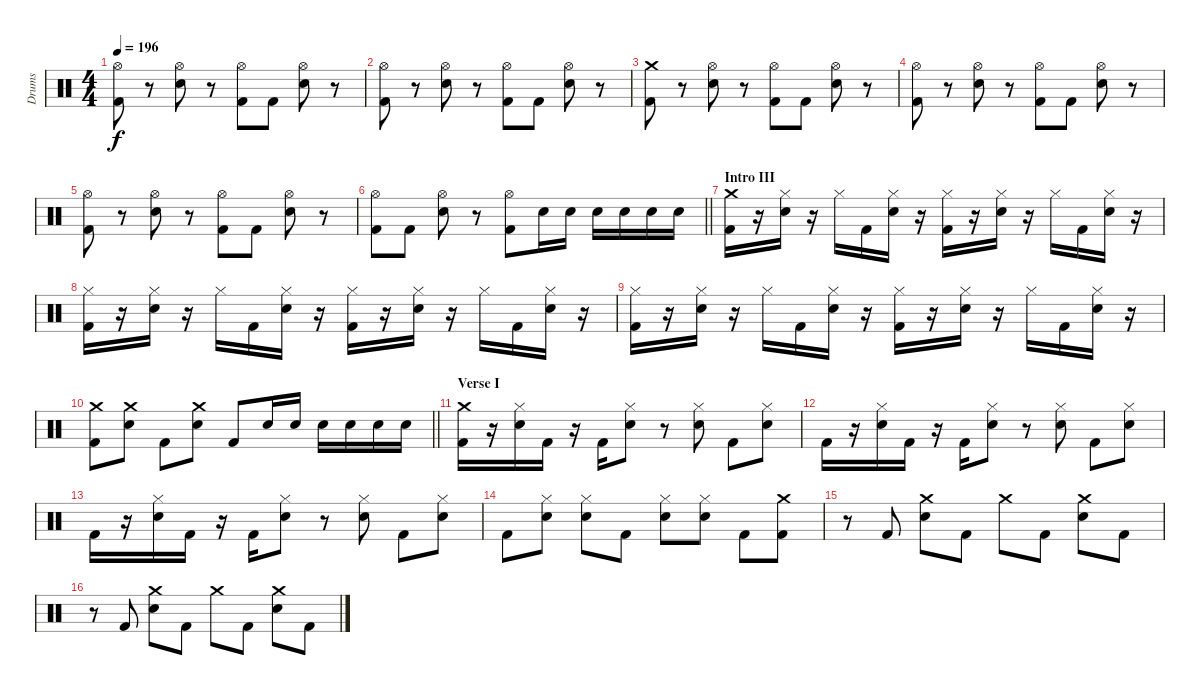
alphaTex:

\track ("Drums" "Drums") {instrument percussion}
\staff {score}
\articulation defaults
\ts (4 4)
\tempo 196
\clef neutral
\ks c
("Hi-Hat (open)" "Kick (hit) 2").8{dy f} r.8 ("Hi-Hat (open)" "Electric Snare (hit)").8 r.8 ("Hi-Hat (open)" "Kick (hit) 2").8 "Kick (hit) 2".8 ("Hi-Hat (open)" "Electric Snare (hit)").8 r.8 |
("Hi-Hat (open)" "Kick (hit) 2").8 r.8 ("Hi-Hat (open)" "Electric Snare (hit)").8 r.8 ("Hi-Hat (open)" "Kick (hit) 2").8 "Kick (hit) 2".8 ("Hi-Hat (open)" "Electric Snare (hit)").8 r.8 |
("Crash medium (hit)" "Kick (hit) 2").8 r.8 ("Hi-Hat (open)" "Electric Snare (hit)").8 r.8 ("Hi-Hat (open)" "Kick (hit) 2").8 "Kick (hit) 2".8 ("Hi-Hat (open)" "Electric Snare (hit)").8 r.8 |
("Hi-Hat (open)" "Kick (hit) 2").8 r.8 ("Hi-Hat (open)" "Electric Snare (hit)").8 r.8 ("Hi-Hat (open)" "Kick (hit) 2").8 "Kick (hit) 2".8 ("Hi-Hat (open)" "Electric Snare (hit)").8 r.8 |
("Hi-Hat (open)" "Kick (hit) 2").8 r.8 ("Hi-Hat (open)" "Electric Snare (hit)").8 r.8 ("Hi-Hat (open)" "Kick (hit) 2").8 "Kick (hit) 2".8 ("Hi-Hat (open)" "Electric Snare (hit)").8 r.8 |
\barLineRight lightlight
("Hi-Hat (open)" "Kick (hit) 2").8 "Kick (hit) 2".8 ("Hi-Hat (open)" "Electric Snare (hit)").8 r.8 ("Hi-Hat (open)" "Kick (hit) 2").8 "Electric Snare (hit)".16 "Electric Snare (hit)".16 "Electric Snare (hit)".16 "Electric Snare (hit)".16 "Electric Snare (hit)".16 "Electric Snare (hit)".16 |
\section ("" "Intro III")
("Crash medium (hit)" "Kick (hit) 2").16 r.16 ("Hi-Hat (closed)" "Electric Snare (hit)").16 r.16 "Hi-Hat (closed)".16 "Kick (hit) 2".16 ("Hi-Hat (closed)" "Electric Snare (hit)").16 r.16 ("Hi-Hat (closed)" "Kick (hit) 2").16 r.16 ("Hi-Hat (closed)" "Electric Snare (hit)").16 r.16 "Hi-Hat (closed)".16 "Kick (hit) 2".16 ("Hi-Hat (closed)" "Electric Snare (hit)").16 r.16 |
("Hi-Hat (closed)" "Kick (hit) 2").16 r.16 ("Hi-Hat (closed)" "Electric Snare (hit)").16 r.16 "Hi-Hat (closed)".16 "Kick (hit) 2".16 ("Hi-Hat (closed)" "Electric Snare (hit)").16 r.16 ("Hi-Hat (closed)" "Kick (hit) 2").16 r.16 ("Hi-Hat (closed)" "Electric Snare (hit)").16 r.16 "Hi-Hat (closed)".16 "Kick (hit) 2".16 ("Hi-Hat (closed)" "Electric Snare (hit)").16 r.16 |
("Hi-Hat (closed)" "Kick (hit) 2").16 r.16 ("Hi-Hat (closed)" "Electric Snare (hit)").16 r.16 "Hi-Hat (closed)".16 "Kick (hit) 2".16 ("Hi-Hat (closed)" "Electric Snare (hit)").16 r.16 ("Hi-Hat (closed)" "Kick (hit) 2").16 r.16 ("Hi-Hat (closed)" "Electric Snare (hit)").16 r.16 "Hi-Hat (closed)".16 "Kick (hit) 2".16 ("Hi-Hat (closed)" "Electric Snare (hit)").16 r.16 |
\barLineRight lightlight
("Crash medium (hit)" "Kick (hit) 2").8 ("Crash medium (hit)" "Electric Snare (hit)").8 "Kick (hit) 2".8 ("Crash medium (hit)" "Electric Snare (hit)").8 "Kick (hit) 2".8 "Electric Snare (hit)".16 "Electric Snare (hit)".16 "Electric Snare (hit)".16 "Electric Snare (hit)".16 "Electric Snare (hit)".16 "Electric Snare (hit)".16 |
\section ("" "Verse I")
("Crash medium (hit)" "Kick (hit) 2").16 r.16 ("Hi-Hat (closed)" "Electric Snare (hit)").16 "Kick (hit) 2".16 r.16 "Kick (hit) 2".16 ("Hi-Hat (closed)" "Electric Snare (hit)").8 r.8 ("Hi-Hat (closed)" "Electric Snare (hit)").8 "Kick (hit) 2".8 ("Hi-Hat (closed)" "Electric Snare (hit)").8 |
"Kick (hit) 2".16 r.16 ("Hi-Hat (closed)" "Electric Snare (hit)").16 "Kick (hit) 2".16 r.16 "Kick (hit) 2".16 ("Hi-Hat (closed)" "Electric Snare (hit)").8 r.8 ("Hi-Hat (closed)" "Electric Snare (hit)").8 "Kick (hit) 2".8 ("Hi-Hat (closed)" "Electric Snare (hit)").8 |
"Kick (hit) 2".16 r.16 ("Hi-Hat (closed)" "Electric Snare (hit)").16 "Kick (hit) 2".16 r.16 "Kick (hit) 2".16 ("Hi-Hat (closed)" "Electric Snare (hit)").8 r.8 ("Hi-Hat (closed)" "Electric Snare (hit)").8 "Kick (hit) 2".8 ("Hi-Hat (closed)" "Electric Snare (hit)").8 |
"Kick (hit) 2".8 ("Hi-Hat (closed)" "Electric Snare (hit)").8 ("Hi-Hat (closed)" "Electric Snare (hit)").8 "Kick (hit) 2".8 ("Hi-Hat (closed)" "Electric Snare (hit)").8 ("Hi-Hat (closed)" "Electric Snare (hit)").8 "Kick (hit) 2".8 ("Crash medium (hit)" "Kick (hit) 2").8 |
r.8 "Kick (hit) 2".8 ("Crash medium (hit)" "Electric Snare (hit)").8 "Kick (hit) 2".8 "Crash medium (hit)".8 "Kick (hit) 2".8 ("Crash medium (hit)" "Electric Snare (hit)").8 "Kick (hit) 2".8 |
r.8 "Kick (hit) 2".8 ("Crash medium (hit)" "Electric Snare (hit)").8 "Kick (hit) 2".8 "Crash medium (hit)".8 "Kick (hit) 2".8 ("Crash medium (hit)" "Electric Snare (hit)").8 "Kick (hit) 2".8
